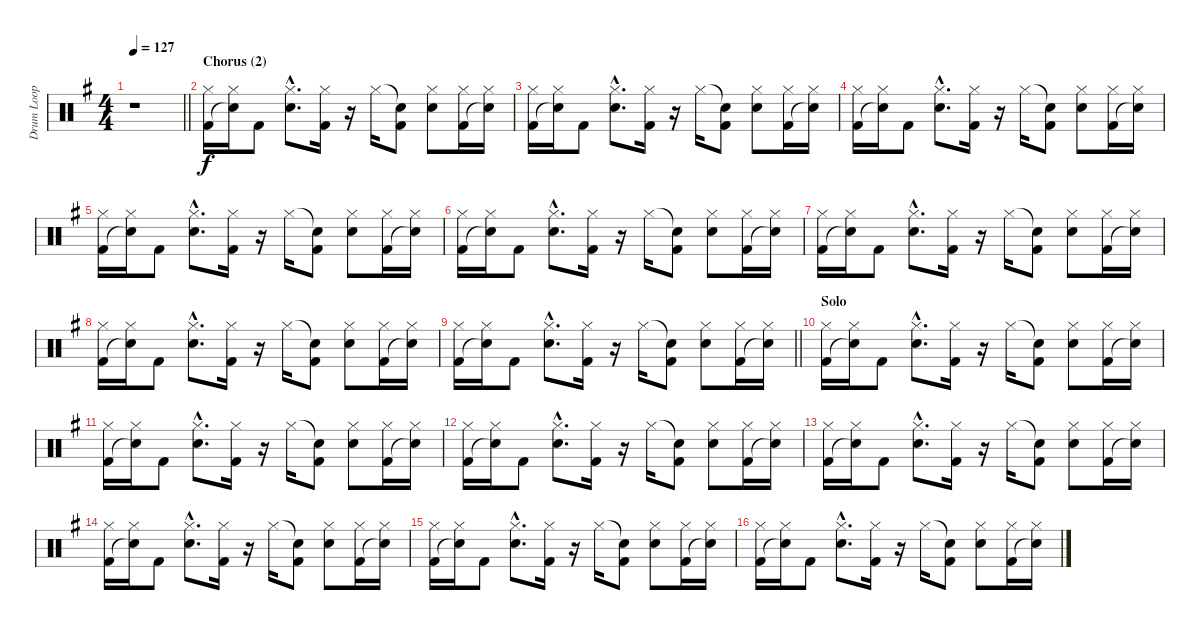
\track ("Drum Loop" "Drum Loop") {instrument percussion}
\staff {score}
\articulation defaults
\ts (4 4)
\tempo 127
\clef neutral
\barLineRight lightlight
\ks eminor
r.1{dy f} |
\section ("" "Chorus (2)")
("Hi-Hat (closed)" "Kick (hit) 2").16 ("Hi-Hat (closed)" "Snare (hit)"{t}).16 "Kick (hit) 2".8 ("Hi-Hat (closed)"{hac} "Electric Snare (hit)"{hac}).8{d} ("Hi-Hat (closed)" "Kick (hit) 2").16 r.16 "Hi-Hat (closed)".16 ("Snare (hit)"{t} "Kick (hit) 2").8 ("Hi-Hat (closed)" "Electric Snare (hit)").8 ("Hi-Hat (closed)" "Kick (hit) 2").16 ("Hi-Hat (closed)" "Snare (hit)"{t}).16 |
("Hi-Hat (closed)" "Kick (hit) 2").16 ("Hi-Hat (closed)" "Snare (hit)"{t}).16 "Kick (hit) 2".8 ("Hi-Hat (closed)"{hac} "Electric Snare (hit)"{hac}).8{d} ("Hi-Hat (closed)" "Kick (hit) 2").16 r.16 "Hi-Hat (closed)".16 ("Snare (hit)"{t} "Kick (hit) 2").8 ("Hi-Hat (closed)" "Electric Snare (hit)").8 ("Hi-Hat (closed)" "Kick (hit) 2").16 ("Hi-Hat (closed)" "Snare (hit)"{t}).16 |
("Hi-Hat (closed)" "Kick (hit) 2").16 ("Hi-Hat (closed)" "Snare (hit)"{t}).16 "Kick (hit) 2".8 ("Hi-Hat (closed)"{hac} "Electric Snare (hit)"{hac}).8{d} ("Hi-Hat (closed)" "Kick (hit) 2").16 r.16 "Hi-Hat (closed)".16 ("Snare (hit)"{t} "Kick (hit) 2").8 ("Hi-Hat (closed)" "Electric Snare (hit)").8 ("Hi-Hat (closed)" "Kick (hit) 2").16 ("Hi-Hat (closed)" "Snare (hit)"{t}).16 |
("Hi-Hat (closed)" "Kick (hit) 2").16 ("Hi-Hat (closed)" "Snare (hit)"{t}).16 "Kick (hit) 2".8 ("Hi-Hat (closed)"{hac} "Electric Snare (hit)"{hac}).8{d} ("Hi-Hat (closed)" "Kick (hit) 2").16 r.16 "Hi-Hat (closed)".16 ("Snare (hit)"{t} "Kick (hit) 2").8 ("Hi-Hat (closed)" "Electric Snare (hit)").8 ("Hi-Hat (closed)" "Kick (hit) 2").16 ("Hi-Hat (closed)" "Snare (hit)"{t}).16 |
("Hi-Hat (closed)" "Kick (hit) 2").16 ("Hi-Hat (closed)" "Snare (hit)"{t}).16 "Kick (hit) 2".8 ("Hi-Hat (closed)"{hac} "Electric Snare (hit)"{hac}).8{d} ("Hi-Hat (closed)" "Kick (hit) 2").16 r.16 "Hi-Hat (closed)".16 ("Snare (hit)"{t} "Kick (hit) 2").8 ("Hi-Hat (closed)" "Electric Snare (hit)").8 ("Hi-Hat (closed)" "Kick (hit) 2").16 ("Hi-Hat (closed)" "Snare (hit)"{t}).16 |
("Hi-Hat (closed)" "Kick (hit) 2").16 ("Hi-Hat (closed)" "Snare (hit)"{t}).16 "Kick (hit) 2".8 ("Hi-Hat (closed)"{hac} "Electric Snare (hit)"{hac}).8{d} ("Hi-Hat (closed)" "Kick (hit) 2").16 r.16 "Hi-Hat (closed)".16 ("Snare (hit)"{t} "Kick (hit) 2").8 ("Hi-Hat (closed)" "Electric Snare (hit)").8 ("Hi-Hat (closed)" "Kick (hit) 2").16 ("Hi-Hat (closed)" "Snare (hit)"{t}).16 |
("Hi-Hat (closed)" "Kick (hit) 2").16 ("Hi-Hat (closed)" "Snare (hit)"{t}).16 "Kick (hit) 2".8 ("Hi-Hat (closed)"{hac} "Electric Snare (hit)"{hac}).8{d} ("Hi-Hat (closed)" "Kick (hit) 2").16 r.16 "Hi-Hat (closed)".16 ("Snare (hit)"{t} "Kick (hit) 2").8 ("Hi-Hat (closed)" "Electric Snare (hit)").8 ("Hi-Hat (closed)" "Kick (hit) 2").16 ("Hi-Hat (closed)" "Snare (hit)"{t}).16 |
\barLineRight lightlight
("Hi-Hat (closed)" "Kick (hit) 2").16 ("Hi-Hat (closed)" "Snare (hit)"{t}).16 "Kick (hit) 2".8 ("Hi-Hat (closed)"{hac} "Electric Snare (hit)"{hac}).8{d} ("Hi-Hat (closed)" "Kick (hit) 2").16 r.16 "Hi-Hat (closed)".16 ("Snare (hit)"{t} "Kick (hit) 2").8 ("Hi-Hat (closed)" "Electric Snare (hit)").8 ("Hi-Hat (closed)" "Kick (hit) 2").16 ("Hi-Hat (closed)" "Snare (hit)"{t}).16 |
\section ("" "Solo")
("Hi-Hat (closed)" "Kick (hit) 2").16 ("Hi-Hat (closed)" "Snare (hit)"{t}).16 "Kick (hit) 2".8 ("Hi-Hat (closed)"{hac} "Electric Snare (hit)"{hac}).8{d} ("Hi-Hat (closed)" "Kick (hit) 2").16 r.16 "Hi-Hat (closed)".16 ("Snare (hit)"{t} "Kick (hit) 2").8 ("Hi-Hat (closed)" "Electric Snare (hit)").8 ("Hi-Hat (closed)" "Kick (hit) 2").16 ("Hi-Hat (closed)" "Snare (hit)"{t}).16 |
("Hi-Hat (closed)" "Kick (hit) 2").16 ("Hi-Hat (closed)" "Snare (hit)"{t}).16 "Kick (hit) 2".8 ("Hi-Hat (closed)"{hac} "Electric Snare (hit)"{hac}).8{d} ("Hi-Hat (closed)" "Kick (hit) 2").16 r.16 "Hi-Hat (closed)".16 ("Snare (hit)"{t} "Kick (hit) 2").8 ("Hi-Hat (closed)" "Electric Snare (hit)").8 ("Hi-Hat (closed)" "Kick (hit) 2").16 ("Hi-Hat (closed)" "Snare (hit)"{t}).16 |
("Hi-Hat (closed)" "Kick (hit) 2").16 ("Hi-Hat (closed)" "Snare (hit)"{t}).16 "Kick (hit) 2".8 ("Hi-Hat (closed)"{hac} "Electric Snare (hit)"{hac}).8{d} ("Hi-Hat (closed)" "Kick (hit) 2").16 r.16 "Hi-Hat (closed)".16 ("Snare (hit)"{t} "Kick (hit) 2").8 ("Hi-Hat (closed)" "Electric Snare (hit)").8 ("Hi-Hat (closed)" "Kick (hit) 2").16 ("Hi-Hat (closed)" "Snare (hit)"{t}).16 |
("Hi-Hat (closed)" "Kick (hit) 2").16 ("Hi-Hat (closed)" "Snare (hit)"{t}).16 "Kick (hit) 2".8 ("Hi-Hat (closed)"{hac} "Electric Snare (hit)"{hac}).8{d} ("Hi-Hat (closed)" "Kick (hit) 2").16 r.16 "Hi-Hat (closed)".16 ("Snare (hit)"{t} "Kick (hit) 2").8 ("Hi-Hat (closed)" "Electric Snare (hit)").8 ("Hi-Hat (closed)" "Kick (hit) 2").16 ("Hi-Hat (closed)" "Snare (hit)"{t}).16 |
("Hi-Hat (closed)" "Kick (hit) 2").16 ("Hi-Hat (closed)" "Snare (hit)"{t}).16 "Kick (hit) 2".8 ("Hi-Hat (closed)"{hac} "Electric Snare (hit)"{hac}).8{d} ("Hi-Hat (closed)" "Kick (hit) 2").16 r.16 "Hi-Hat (closed)".16 ("Snare (hit)"{t} "Kick (hit) 2").8 ("Hi-Hat (closed)" "Electric Snare (hit)").8 ("Hi-Hat (closed)" "Kick (hit) 2").16 ("Hi-Hat (closed)" "Snare (hit)"{t}).16 |
("Hi-Hat (closed)" "Kick (hit) 2").16 ("Hi-Hat (closed)" "Snare (hit)"{t}).16 "Kick (hit) 2".8 ("Hi-Hat (closed)"{hac} "Electric Snare (hit)"{hac}).8{d} ("Hi-Hat (closed)" "Kick (hit) 2").16 r.16 "Hi-Hat (closed)".16 ("Snare (hit)"{t} "Kick (hit) 2").8 ("Hi-Hat (closed)" "Electric Snare (hit)").8 ("Hi-Hat (closed)" "Kick (hit) 2").16 ("Hi-Hat (closed)" "Snare (hit)"{t}).16 |
("Hi-Hat (closed)" "Kick (hit) 2").16 ("Hi-Hat (closed)" "Snare (hit)"{t}).16 "Kick (hit) 2".8 ("Hi-Hat (closed)"{hac} "Electric Snare (hit)"{hac}).8{d} ("Hi-Hat (closed)" "Kick (hit) 2").16 r.16 "Hi-Hat (closed)".16 ("Snare (hit)"{t} "Kick (hit) 2").8 ("Hi-Hat (closed)" "Electric Snare (hit)").8 ("Hi-Hat (closed)" "Kick (hit) 2").16 ("Hi-Hat (closed)" "Snare (hit)"{t}).16
